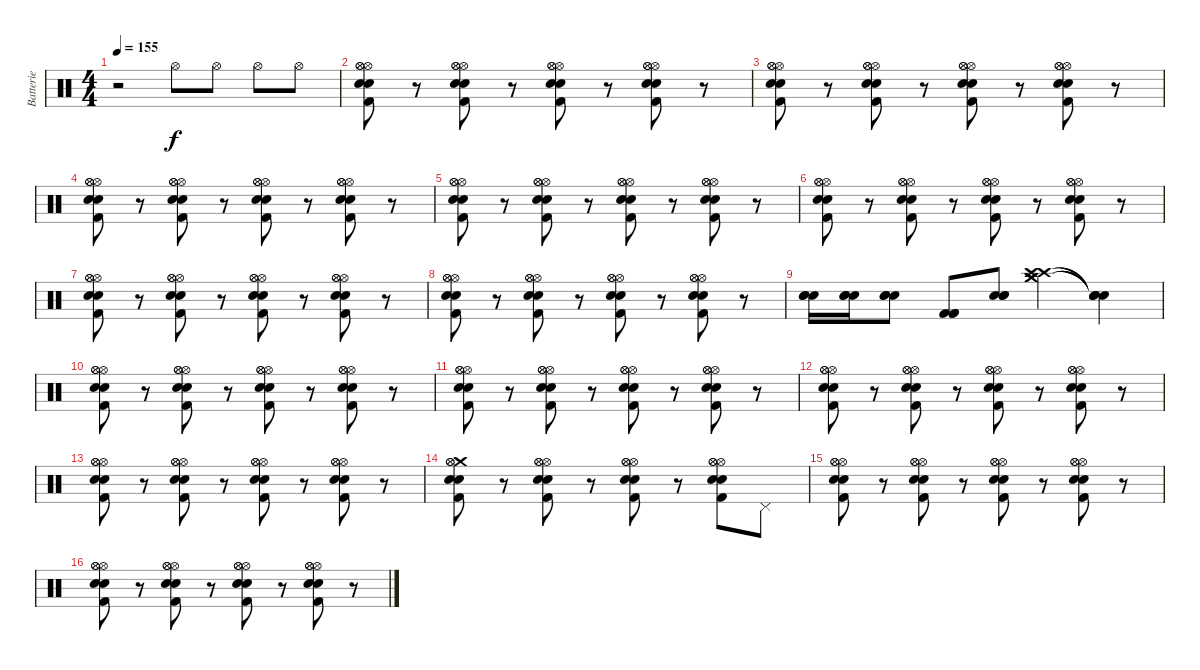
\track ("Batterie" "Batterie") {instrument percussion}
\staff {score}
\articulation defaults
\ts (4 4)
\tempo 155
\clef neutral
\ks c
r.2{dy f} "Hi-Hat (open)".8 "Hi-Hat (open)".8 "Hi-Hat (open)".8 "Hi-Hat (open)".8 |
("Hi-Hat (open)" "Hi-Hat (open)" "Hi-Hat (open)" "Electric Snare (hit)" "Electric Snare (hit)" "Kick (hit) 2").8 r.8 ("Hi-Hat (open)" "Hi-Hat (open)" "Hi-Hat (open)" "Electric Snare (hit)" "Electric Snare (hit)" "Kick (hit) 2").8 r.8 ("Hi-Hat (open)" "Hi-Hat (open)" "Hi-Hat (open)" "Electric Snare (hit)" "Electric Snare (hit)" "Kick (hit) 2").8 r.8 ("Hi-Hat (open)" "Hi-Hat (open)" "Hi-Hat (open)" "Electric Snare (hit)" "Electric Snare (hit)" "Kick (hit) 2").8 r.8 |
("Hi-Hat (open)" "Hi-Hat (open)" "Hi-Hat (open)" "Electric Snare (hit)" "Electric Snare (hit)" "Kick (hit) 2").8 r.8 ("Hi-Hat (open)" "Hi-Hat (open)" "Hi-Hat (open)" "Electric Snare (hit)" "Electric Snare (hit)" "Kick (hit) 2").8 r.8 ("Hi-Hat (open)" "Hi-Hat (open)" "Hi-Hat (open)" "Electric Snare (hit)" "Electric Snare (hit)" "Kick (hit) 2").8 r.8 ("Hi-Hat (open)" "Hi-Hat (open)" "Hi-Hat (open)" "Electric Snare (hit)" "Electric Snare (hit)" "Kick (hit) 2").8 r.8 |
("Hi-Hat (open)" "Hi-Hat (open)" "Hi-Hat (open)" "Electric Snare (hit)" "Electric Snare (hit)" "Kick (hit) 2").8 r.8 ("Hi-Hat (open)" "Hi-Hat (open)" "Hi-Hat (open)" "Electric Snare (hit)" "Electric Snare (hit)" "Kick (hit) 2").8 r.8 ("Hi-Hat (open)" "Hi-Hat (open)" "Hi-Hat (open)" "Electric Snare (hit)" "Electric Snare (hit)" "Kick (hit) 2").8 r.8 ("Hi-Hat (open)" "Hi-Hat (open)" "Hi-Hat (open)" "Electric Snare (hit)" "Electric Snare (hit)" "Kick (hit) 2").8 r.8 |
("Hi-Hat (open)" "Hi-Hat (open)" "Hi-Hat (open)" "Electric Snare (hit)" "Electric Snare (hit)" "Kick (hit) 2").8 r.8 ("Hi-Hat (open)" "Hi-Hat (open)" "Hi-Hat (open)" "Electric Snare (hit)" "Electric Snare (hit)" "Kick (hit) 2").8 r.8 ("Hi-Hat (open)" "Hi-Hat (open)" "Hi-Hat (open)" "Electric Snare (hit)" "Electric Snare (hit)" "Kick (hit) 2").8 r.8 ("Hi-Hat (open)" "Hi-Hat (open)" "Hi-Hat (open)" "Electric Snare (hit)" "Electric Snare (hit)" "Kick (hit) 2").8 r.8 |
("Hi-Hat (open)" "Hi-Hat (open)" "Hi-Hat (open)" "Electric Snare (hit)" "Electric Snare (hit)" "Kick (hit) 2").8 r.8 ("Hi-Hat (open)" "Hi-Hat (open)" "Hi-Hat (open)" "Electric Snare (hit)" "Electric Snare (hit)" "Kick (hit) 2").8 r.8 ("Hi-Hat (open)" "Hi-Hat (open)" "Hi-Hat (open)" "Electric Snare (hit)" "Electric Snare (hit)" "Kick (hit) 2").8 r.8 ("Hi-Hat (open)" "Hi-Hat (open)" "Hi-Hat (open)" "Electric Snare (hit)" "Electric Snare (hit)" "Kick (hit) 2").8 r.8 |
("Hi-Hat (open)" "Hi-Hat (open)" "Hi-Hat (open)" "Electric Snare (hit)" "Electric Snare (hit)" "Kick (hit) 2").8 r.8 ("Hi-Hat (open)" "Hi-Hat (open)" "Hi-Hat (open)" "Electric Snare (hit)" "Electric Snare (hit)" "Kick (hit) 2").8 r.8 ("Hi-Hat (open)" "Hi-Hat (open)" "Hi-Hat (open)" "Electric Snare (hit)" "Electric Snare (hit)" "Kick (hit) 2").8 r.8 ("Hi-Hat (open)" "Hi-Hat (open)" "Hi-Hat (open)" "Electric Snare (hit)" "Electric Snare (hit)" "Kick (hit) 2").8 r.8 |
("Hi-Hat (open)" "Hi-Hat (open)" "Hi-Hat (open)" "Electric Snare (hit)" "Electric Snare (hit)" "Kick (hit) 2").8 r.8 ("Hi-Hat (open)" "Hi-Hat (open)" "Hi-Hat (open)" "Electric Snare (hit)" "Electric Snare (hit)" "Kick (hit) 2").8 r.8 ("Hi-Hat (open)" "Hi-Hat (open)" "Hi-Hat (open)" "Electric Snare (hit)" "Electric Snare (hit)" "Kick (hit) 2").8 r.8 ("Hi-Hat (open)" "Hi-Hat (open)" "Hi-Hat (open)" "Electric Snare (hit)" "Electric Snare (hit)" "Kick (hit) 2").8 r.8 |
("Electric Snare (hit)" "Electric Snare (hit)" "Electric Snare (hit)").16 ("Electric Snare (hit)" "Electric Snare (hit)" "Electric Snare (hit)").16 ("Electric Snare (hit)" "Electric Snare (hit)" "Electric Snare (hit)").8 ("Kick (hit) 2" "Kick (hit) 2" "Kick (hit) 2").8 ("Electric Snare (hit)" "Electric Snare (hit)" "Electric Snare (hit)").8 ("Crash high (hit)" "Crash medium (hit)" "Crash medium (hit)" "Crash high (hit)").4 ("Snare (hit)"{t} "Snare (hit)"{t} "Snare (hit)"{t} "Snare (hit)"{t}).4 |
("Hi-Hat (open)" "Hi-Hat (open)" "Hi-Hat (open)" "Electric Snare (hit)" "Electric Snare (hit)" "Kick (hit) 2").8 r.8 ("Hi-Hat (open)" "Hi-Hat (open)" "Hi-Hat (open)" "Electric Snare (hit)" "Electric Snare (hit)" "Kick (hit) 2").8 r.8 ("Hi-Hat (open)" "Hi-Hat (open)" "Hi-Hat (open)" "Electric Snare (hit)" "Electric Snare (hit)" "Kick (hit) 2").8 r.8 ("Hi-Hat (open)" "Hi-Hat (open)" "Hi-Hat (open)" "Electric Snare (hit)" "Electric Snare (hit)" "Kick (hit) 2").8 r.8 |
("Hi-Hat (open)" "Hi-Hat (open)" "Hi-Hat (open)" "Electric Snare (hit)" "Electric Snare (hit)" "Kick (hit) 2").8 r.8 ("Hi-Hat (open)" "Hi-Hat (open)" "Hi-Hat (open)" "Electric Snare (hit)" "Electric Snare (hit)" "Kick (hit) 2").8 r.8 ("Hi-Hat (open)" "Hi-Hat (open)" "Hi-Hat (open)" "Electric Snare (hit)" "Electric Snare (hit)" "Kick (hit) 2").8 r.8 ("Hi-Hat (open)" "Hi-Hat (open)" "Hi-Hat (open)" "Electric Snare (hit)" "Electric Snare (hit)" "Kick (hit) 2").8 r.8 |
("Hi-Hat (open)" "Hi-Hat (open)" "Hi-Hat (open)" "Electric Snare (hit)" "Electric Snare (hit)" "Kick (hit) 2").8 r.8 ("Hi-Hat (open)" "Hi-Hat (open)" "Hi-Hat (open)" "Electric Snare (hit)" "Electric Snare (hit)" "Kick (hit) 2").8 r.8 ("Hi-Hat (open)" "Hi-Hat (open)" "Hi-Hat (open)" "Electric Snare (hit)" "Electric Snare (hit)" "Kick (hit) 2").8 r.8 ("Hi-Hat (open)" "Hi-Hat (open)" "Hi-Hat (open)" "Electric Snare (hit)" "Electric Snare (hit)" "Kick (hit) 2").8 r.8 |
("Hi-Hat (open)" "Hi-Hat (open)" "Hi-Hat (open)" "Electric Snare (hit)" "Electric Snare (hit)" "Kick (hit) 2").8 r.8 ("Hi-Hat (open)" "Hi-Hat (open)" "Hi-Hat (open)" "Electric Snare (hit)" "Electric Snare (hit)" "Kick (hit) 2").8 r.8 ("Hi-Hat (open)" "Hi-Hat (open)" "Hi-Hat (open)" "Electric Snare (hit)" "Electric Snare (hit)" "Kick (hit) 2").8 r.8 ("Hi-Hat (open)" "Hi-Hat (open)" "Hi-Hat (open)" "Electric Snare (hit)" "Electric Snare (hit)" "Kick (hit) 2").8 r.8 |
("Crash medium (hit)" "Hi-Hat (open)" "Hi-Hat (open)" "Electric Snare (hit)" "Electric Snare (hit)" "Kick (hit) 2").8 r.8 ("Hi-Hat (open)" "Hi-Hat (open)" "Hi-Hat (open)" "Electric Snare (hit)" "Electric Snare (hit)" "Kick (hit) 2").8 r.8 ("Hi-Hat (open)" "Hi-Hat (open)" "Hi-Hat (open)" "Electric Snare (hit)" "Electric Snare (hit)" "Kick (hit) 2").8 r.8 ("Hi-Hat (open)" "Hi-Hat (open)" "Hi-Hat (open)" "Electric Snare (hit)" "Electric Snare (hit)" "Kick (hit) 2").8 "Pedal Hi-Hat (hit)".8 |
("Hi-Hat (open)" "Hi-Hat (open)" "Hi-Hat (open)" "Electric Snare (hit)" "Electric Snare (hit)" "Kick (hit) 2").8 r.8 ("Hi-Hat (open)" "Hi-Hat (open)" "Hi-Hat (open)" "Electric Snare (hit)" "Electric Snare (hit)" "Kick (hit) 2").8 r.8 ("Hi-Hat (open)" "Hi-Hat (open)" "Hi-Hat (open)" "Electric Snare (hit)" "Electric Snare (hit)" "Kick (hit) 2").8 r.8 ("Hi-Hat (open)" "Hi-Hat (open)" "Hi-Hat (open)" "Electric Snare (hit)" "Electric Snare (hit)" "Kick (hit) 2").8 r.8 |
("Hi-Hat (open)" "Hi-Hat (open)" "Hi-Hat (open)" "Electric Snare (hit)" "Electric Snare (hit)" "Kick (hit) 2").8 r.8 ("Hi-Hat (open)" "Hi-Hat (open)" "Hi-Hat (open)" "Electric Snare (hit)" "Electric Snare (hit)" "Kick (hit) 2").8 r.8 ("Hi-Hat (open)" "Hi-Hat (open)" "Hi-Hat (open)" "Electric Snare (hit)" "Electric Snare (hit)" "Kick (hit) 2").8 r.8 ("Hi-Hat (open)" "Hi-Hat (open)" "Hi-Hat (open)" "Electric Snare (hit)" "Electric Snare (hit)" "Kick (hit) 2").8 r.8
